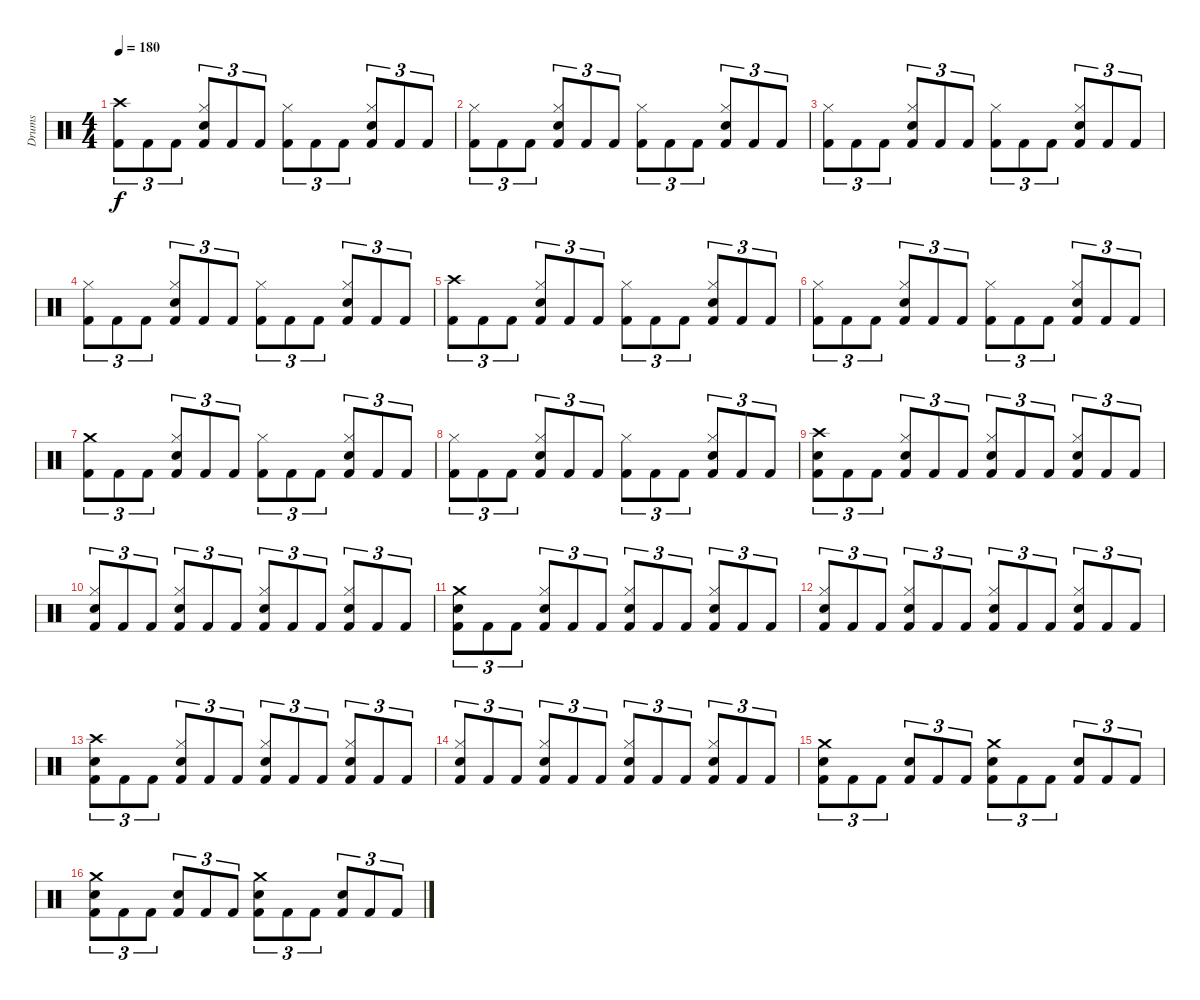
\track ("Drums" "Drums") {instrument percussion}
\staff {score}
\articulation defaults
\ts (4 4)
\tempo 180
\clef neutral
\ks c
("Crash high (hit)" "Kick (hit) 2").8{tu (3 2) dy f} "Kick (hit) 2".8{tu (3 2)} "Kick (hit) 2".8{tu (3 2)} ("Hi-Hat (closed)" "Electric Snare (hit)" "Kick (hit) 2").8{tu (3 2)} "Kick (hit) 2".8{tu (3 2)} "Kick (hit) 2".8{tu (3 2)} ("Hi-Hat (closed)" "Kick (hit) 2").8{tu (3 2)} "Kick (hit) 2".8{tu (3 2)} "Kick (hit) 2".8{tu (3 2)} ("Hi-Hat (closed)" "Electric Snare (hit)" "Kick (hit) 2").8{tu (3 2)} "Kick (hit) 2".8{tu (3 2)} "Kick (hit) 2".8{tu (3 2)} |
("Hi-Hat (closed)" "Kick (hit) 2").8{tu (3 2)} "Kick (hit) 2".8{tu (3 2)} "Kick (hit) 2".8{tu (3 2)} ("Hi-Hat (closed)" "Electric Snare (hit)" "Kick (hit) 2").8{tu (3 2)} "Kick (hit) 2".8{tu (3 2)} "Kick (hit) 2".8{tu (3 2)} ("Hi-Hat (closed)" "Kick (hit) 2").8{tu (3 2)} "Kick (hit) 2".8{tu (3 2)} "Kick (hit) 2".8{tu (3 2)} ("Hi-Hat (closed)" "Electric Snare (hit)" "Kick (hit) 2").8{tu (3 2)} "Kick (hit) 2".8{tu (3 2)} "Kick (hit) 2".8{tu (3 2)} |
("Hi-Hat (closed)" "Kick (hit) 2").8{tu (3 2)} "Kick (hit) 2".8{tu (3 2)} "Kick (hit) 2".8{tu (3 2)} ("Hi-Hat (closed)" "Electric Snare (hit)" "Kick (hit) 2").8{tu (3 2)} "Kick (hit) 2".8{tu (3 2)} "Kick (hit) 2".8{tu (3 2)} ("Hi-Hat (closed)" "Kick (hit) 2").8{tu (3 2)} "Kick (hit) 2".8{tu (3 2)} "Kick (hit) 2".8{tu (3 2)} ("Hi-Hat (closed)" "Electric Snare (hit)" "Kick (hit) 2").8{tu (3 2)} "Kick (hit) 2".8{tu (3 2)} "Kick (hit) 2".8{tu (3 2)} |
("Hi-Hat (closed)" "Kick (hit) 2").8{tu (3 2)} "Kick (hit) 2".8{tu (3 2)} "Kick (hit) 2".8{tu (3 2)} ("Hi-Hat (closed)" "Electric Snare (hit)" "Kick (hit) 2").8{tu (3 2)} "Kick (hit) 2".8{tu (3 2)} "Kick (hit) 2".8{tu (3 2)} ("Hi-Hat (closed)" "Kick (hit) 2").8{tu (3 2)} "Kick (hit) 2".8{tu (3 2)} "Kick (hit) 2".8{tu (3 2)} ("Hi-Hat (closed)" "Electric Snare (hit)" "Kick (hit) 2").8{tu (3 2)} "Kick (hit) 2".8{tu (3 2)} "Kick (hit) 2".8{tu (3 2)} |
("Crash high (hit)" "Kick (hit) 2").8{tu (3 2)} "Kick (hit) 2".8{tu (3 2)} "Kick (hit) 2".8{tu (3 2)} ("Hi-Hat (closed)" "Electric Snare (hit)" "Kick (hit) 2").8{tu (3 2)} "Kick (hit) 2".8{tu (3 2)} "Kick (hit) 2".8{tu (3 2)} ("Hi-Hat (closed)" "Kick (hit) 2").8{tu (3 2)} "Kick (hit) 2".8{tu (3 2)} "Kick (hit) 2".8{tu (3 2)} ("Hi-Hat (closed)" "Electric Snare (hit)" "Kick (hit) 2").8{tu (3 2)} "Kick (hit) 2".8{tu (3 2)} "Kick (hit) 2".8{tu (3 2)} |
("Hi-Hat (closed)" "Kick (hit) 2").8{tu (3 2)} "Kick (hit) 2".8{tu (3 2)} "Kick (hit) 2".8{tu (3 2)} ("Hi-Hat (closed)" "Electric Snare (hit)" "Kick (hit) 2").8{tu (3 2)} "Kick (hit) 2".8{tu (3 2)} "Kick (hit) 2".8{tu (3 2)} ("Hi-Hat (closed)" "Kick (hit) 2").8{tu (3 2)} "Kick (hit) 2".8{tu (3 2)} "Kick (hit) 2".8{tu (3 2)} ("Hi-Hat (closed)" "Electric Snare (hit)" "Kick (hit) 2").8{tu (3 2)} "Kick (hit) 2".8{tu (3 2)} "Kick (hit) 2".8{tu (3 2)} |
("Crash medium (hit)" "Kick (hit) 2").8{tu (3 2)} "Kick (hit) 2".8{tu (3 2)} "Kick (hit) 2".8{tu (3 2)} ("Hi-Hat (closed)" "Electric Snare (hit)" "Kick (hit) 2").8{tu (3 2)} "Kick (hit) 2".8{tu (3 2)} "Kick (hit) 2".8{tu (3 2)} ("Hi-Hat (closed)" "Kick (hit) 2").8{tu (3 2)} "Kick (hit) 2".8{tu (3 2)} "Kick (hit) 2".8{tu (3 2)} ("Hi-Hat (closed)" "Electric Snare (hit)" "Kick (hit) 2").8{tu (3 2)} "Kick (hit) 2".8{tu (3 2)} "Kick (hit) 2".8{tu (3 2)} |
("Hi-Hat (closed)" "Kick (hit) 2").8{tu (3 2)} "Kick (hit) 2".8{tu (3 2)} "Kick (hit) 2".8{tu (3 2)} ("Hi-Hat (closed)" "Electric Snare (hit)" "Kick (hit) 2").8{tu (3 2)} "Kick (hit) 2".8{tu (3 2)} "Kick (hit) 2".8{tu (3 2)} ("Hi-Hat (closed)" "Kick (hit) 2").8{tu (3 2)} "Kick (hit) 2".8{tu (3 2)} "Kick (hit) 2".8{tu (3 2)} ("Hi-Hat (closed)" "Electric Snare (hit)" "Kick (hit) 2").8{tu (3 2)} "Kick (hit) 2".8{tu (3 2)} "Kick (hit) 2".8{tu (3 2)} |
("Crash high (hit)" "Electric Snare (hit)" "Kick (hit) 2").8{tu (3 2)} "Kick (hit) 2".8{tu (3 2)} "Kick (hit) 2".8{tu (3 2)} ("Hi-Hat (closed)" "Electric Snare (hit)" "Kick (hit) 2").8{tu (3 2)} "Kick (hit) 2".8{tu (3 2)} "Kick (hit) 2".8{tu (3 2)} ("Hi-Hat (closed)" "Electric Snare (hit)" "Kick (hit) 2").8{tu (3 2)} "Kick (hit) 2".8{tu (3 2)} "Kick (hit) 2".8{tu (3 2)} ("Hi-Hat (closed)" "Electric Snare (hit)" "Kick (hit) 2").8{tu (3 2)} "Kick (hit) 2".8{tu (3 2)} "Kick (hit) 2".8{tu (3 2)} |
("Hi-Hat (closed)" "Electric Snare (hit)" "Kick (hit) 2").8{tu (3 2)} "Kick (hit) 2".8{tu (3 2)} "Kick (hit) 2".8{tu (3 2)} ("Hi-Hat (closed)" "Electric Snare (hit)" "Kick (hit) 2").8{tu (3 2)} "Kick (hit) 2".8{tu (3 2)} "Kick (hit) 2".8{tu (3 2)} ("Hi-Hat (closed)" "Electric Snare (hit)" "Kick (hit) 2").8{tu (3 2)} "Kick (hit) 2".8{tu (3 2)} "Kick (hit) 2".8{tu (3 2)} ("Hi-Hat (closed)" "Electric Snare (hit)" "Kick (hit) 2").8{tu (3 2)} "Kick (hit) 2".8{tu (3 2)} "Kick (hit) 2".8{tu (3 2)} |
("Crash medium (hit)" "Electric Snare (hit)" "Kick (hit) 2").8{tu (3 2)} "Kick (hit) 2".8{tu (3 2)} "Kick (hit) 2".8{tu (3 2)} ("Hi-Hat (closed)" "Electric Snare (hit)" "Kick (hit) 2").8{tu (3 2)} "Kick (hit) 2".8{tu (3 2)} "Kick (hit) 2".8{tu (3 2)} ("Hi-Hat (closed)" "Electric Snare (hit)" "Kick (hit) 2").8{tu (3 2)} "Kick (hit) 2".8{tu (3 2)} "Kick (hit) 2".8{tu (3 2)} ("Hi-Hat (closed)" "Electric Snare (hit)" "Kick (hit) 2").8{tu (3 2)} "Kick (hit) 2".8{tu (3 2)} "Kick (hit) 2".8{tu (3 2)} |
("Hi-Hat (closed)" "Electric Snare (hit)" "Kick (hit) 2").8{tu (3 2)} "Kick (hit) 2".8{tu (3 2)} "Kick (hit) 2".8{tu (3 2)} ("Hi-Hat (closed)" "Electric Snare (hit)" "Kick (hit) 2").8{tu (3 2)} "Kick (hit) 2".8{tu (3 2)} "Kick (hit) 2".8{tu (3 2)} ("Hi-Hat (closed)" "Electric Snare (hit)" "Kick (hit) 2").8{tu (3 2)} "Kick (hit) 2".8{tu (3 2)} "Kick (hit) 2".8{tu (3 2)} ("Hi-Hat (closed)" "Electric Snare (hit)" "Kick (hit) 2").8{tu (3 2)} "Kick (hit) 2".8{tu (3 2)} "Kick (hit) 2".8{tu (3 2)} |
("Crash high (hit)" "Electric Snare (hit)" "Kick (hit) 2").8{tu (3 2)} "Kick (hit) 2".8{tu (3 2)} "Kick (hit) 2".8{tu (3 2)} ("Hi-Hat (closed)" "Electric Snare (hit)" "Kick (hit) 2").8{tu (3 2)} "Kick (hit) 2".8{tu (3 2)} "Kick (hit) 2".8{tu (3 2)} ("Hi-Hat (closed)" "Electric Snare (hit)" "Kick (hit) 2").8{tu (3 2)} "Kick (hit) 2".8{tu (3 2)} "Kick (hit) 2".8{tu (3 2)} ("Hi-Hat (closed)" "Electric Snare (hit)" "Kick (hit) 2").8{tu (3 2)} "Kick (hit) 2".8{tu (3 2)} "Kick (hit) 2".8{tu (3 2)} |
("Hi-Hat (closed)" "Electric Snare (hit)" "Kick (hit) 2").8{tu (3 2)} "Kick (hit) 2".8{tu (3 2)} "Kick (hit) 2".8{tu (3 2)} ("Hi-Hat (closed)" "Electric Snare (hit)" "Kick (hit) 2").8{tu (3 2)} "Kick (hit) 2".8{tu (3 2)} "Kick (hit) 2".8{tu (3 2)} ("Hi-Hat (closed)" "Electric Snare (hit)" "Kick (hit) 2").8{tu (3 2)} "Kick (hit) 2".8{tu (3 2)} "Kick (hit) 2".8{tu (3 2)} ("Hi-Hat (closed)" "Electric Snare (hit)" "Kick (hit) 2").8{tu (3 2)} "Kick (hit) 2".8{tu (3 2)} "Kick (hit) 2".8{tu (3 2)} |
("Crash medium (hit)" "Electric Snare (hit)" "Kick (hit) 2").8{tu (3 2)} "Kick (hit) 2".8{tu (3 2)} "Kick (hit) 2".8{tu (3 2)} ("Electric Snare (hit)" "Kick (hit) 2").8{tu (3 2)} "Kick (hit) 2".8{tu (3 2)} "Kick (hit) 2".8{tu (3 2)} ("Crash medium (hit)" "Electric Snare (hit)" "Kick (hit) 2").8{tu (3 2)} "Kick (hit) 2".8{tu (3 2)} "Kick (hit) 2".8{tu (3 2)} ("Electric Snare (hit)" "Kick (hit) 2").8{tu (3 2)} "Kick (hit) 2".8{tu (3 2)} "Kick (hit) 2".8{tu (3 2)} |
("Crash medium (hit)" "Electric Snare (hit)" "Kick (hit) 2").8{tu (3 2)} "Kick (hit) 2".8{tu (3 2)} "Kick (hit) 2".8{tu (3 2)} ("Electric Snare (hit)" "Kick (hit) 2").8{tu (3 2)} "Kick (hit) 2".8{tu (3 2)} "Kick (hit) 2".8{tu (3 2)} ("Crash medium (hit)" "Electric Snare (hit)" "Kick (hit) 2").8{tu (3 2)} "Kick (hit) 2".8{tu (3 2)} "Kick (hit) 2".8{tu (3 2)} ("Electric Snare (hit)" "Kick (hit) 2").8{tu (3 2)} "Kick (hit) 2".8{tu (3 2)} "Kick (hit) 2".8{tu (3 2)}
